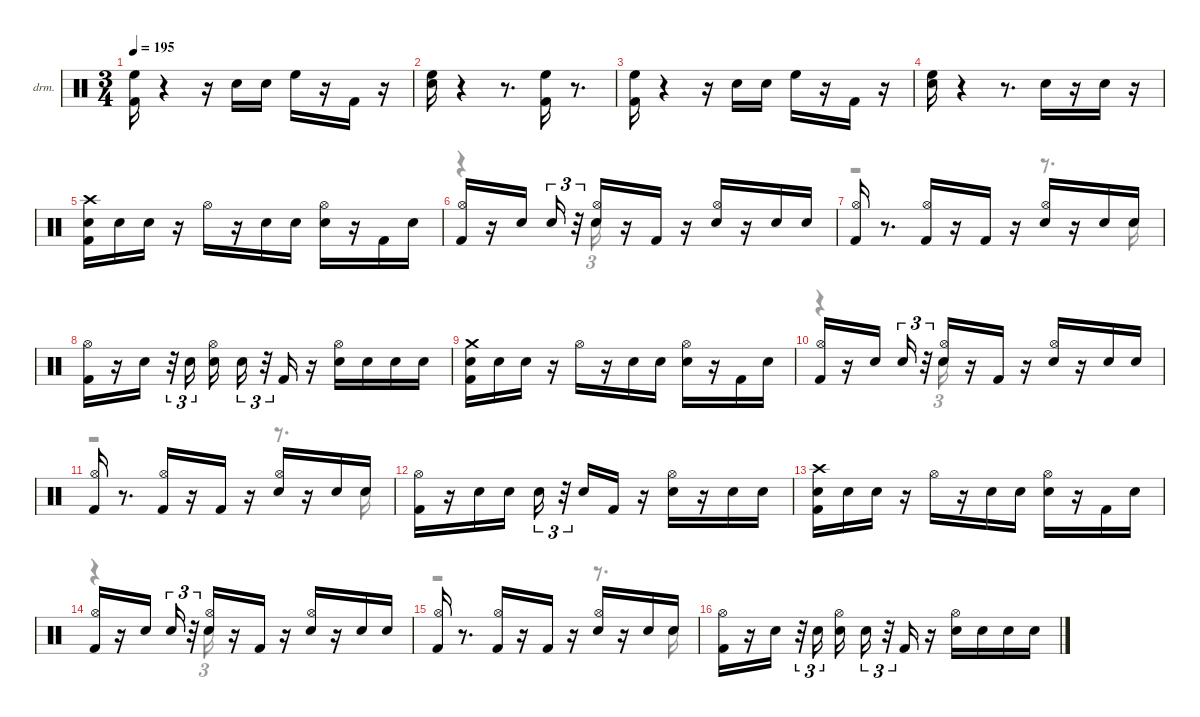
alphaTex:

\hideDynamics
\bracketExtendMode nobrackets
\firstSystemTrackNameOrientation horizontal
\otherSystemsTrackNameOrientation horizontal
\track ("EZdrummer 3" "drm.") {instrument percussion}
\staff {score}
\articulation defaults
\voice
\ts (3 4)
\tempo 195
\clef neutral
\ks aminor
("Kick (hit) 2" "High Floor Tom (hit)").16{dy ff beam Down} r.4{beam Down} r.16{beam Down} "Snare (hit) 2".16{dy mp beam Down} "Snare (hit) 2".16{dy pp beam Down} "High Floor Tom (hit)".16{dy mf beam Down} r.16{beam Down} "Kick (hit) 2".16{dy f beam Up} r.16{beam Up} |
("Snare (hit) 2" "High Floor Tom (hit)").16{beam Down} r.4{beam Down} r.8{d beam Down} ("Kick (hit) 2" "High Floor Tom (hit)").16{dy mf beam Down} r.8{d beam Down} |
("Kick (hit) 2" "High Floor Tom (hit)").16{dy ff beam Down} r.4{beam Down} r.16{beam Down} "Snare (hit) 2".16{dy mp beam Down} "Snare (hit) 2".16{dy pp beam Down} "High Floor Tom (hit)".16{dy mf beam Down} r.16{beam Down} "Kick (hit) 2".16{dy f beam Up} r.16{beam Up} |
("Snare (hit) 2" "High Floor Tom (hit)").16{dy ff beam Down} r.4{beam Down} r.8{d beam Down} "Snare (hit) 2".16{dy f beam Down} r.16{beam Down} "Snare (hit) 2".16{dy ppp beam Down} r.16{beam Down} |
("Kick (hit) 2" "Snare (hit) 2" "Crash high (hit)"{acc #}).16{dy ff beam Down} "Snare (hit) 2".16{dy pp beam Down} "Snare (hit) 2".16{dy ppp beam Down} r.16{beam Down} "Hi-Hat (open)"{acc #}.16{dy mp beam Down} r.16{beam Down} "Snare (hit) 2".16{dy ff beam Down} "Snare (hit) 2".16{dy pp beam Down} ("Snare (hit) 2" "Hi-Hat (open)"{acc #}).16{dy ppp beam Down} r.16{beam Down} "Kick (hit) 2".16{dy p beam Up} "Snare (hit) 2".16{dy ppp beam Up} |
("Kick (hit) 2" "Hi-Hat (open)"{acc #}).16{dy ff beam Up} r.16{beam Up} "Snare (hit) 2".16{beam Up} "Snare (hit) 2".16{tu (3 2) dy pp beam Up} r.32{tu (3 2) beam Up} ("Snare (hit) 2" "Hi-Hat (open)"{acc #}).16{dy mf beam Up} r.16{beam Up} "Kick (hit) 2".16{dy f beam Up} r.16{beam Up} ("Snare (hit) 2" "Hi-Hat (open)"{acc #}).16{dy mf beam Up} r.16{beam Up} "Snare (hit) 2".16{dy f beam Up} "Snare (hit) 2".16{dy ppp beam Up} |
("Kick (hit) 2" "Hi-Hat (open)"{acc #}).16{dy fff beam Up} r.8{d beam Up} ("Kick (hit) 2" "Hi-Hat (open)"{acc #}).16{dy mf beam Up} r.16{beam Up} "Kick (hit) 2".16{dy ff beam Up} r.16{beam Up} ("Snare (hit) 2" "Hi-Hat (open)"{acc #}).16{beam Up} r.16{beam Up} "Snare (hit) 2".16{dy pp beam Up} "Snare (hit) 2".16{dy ppp beam Up} |
("Kick (hit) 2" "Hi-Hat (open)"{acc #}).16{dy ff beam Down} r.16{beam Down} "Snare (hit) 2".16{dy fff beam Down} r.32{tu (3 2) beam Down} "Snare (hit) 2".16{tu (3 2) dy pp beam Down} ("Snare (hit) 2" "Hi-Hat (open)"{acc #}).16{dy mp beam Down} "Snare (hit) 2".16{tu (3 2) dy ppp beam Down} r.32{tu (3 2) beam Down} "Kick (hit) 2".16{dy f beam Up} r.16{beam Up} ("Snare (hit) 2" "Hi-Hat (open)"{acc #}).16{dy mf beam Down} "Snare (hit) 2".16{dy ppp beam Down} "Snare (hit) 2".16{beam Down} "Snare (hit) 2".16{beam Down} |
("Snare (hit) 2" "Crash medium (hit)" "Kick (hit) 2").16{dy ff beam Down} "Snare (hit) 2".16{dy pp beam Down} "Snare (hit) 2".16{dy ppp beam Down} r.16{beam Down} "Hi-Hat (open)"{acc #}.16{dy mp beam Down} r.16{beam Down} "Snare (hit) 2".16{dy ff beam Down} "Snare (hit) 2".16{dy pp beam Down} ("Snare (hit) 2" "Hi-Hat (open)"{acc #}).16{dy ppp beam Down} r.16{beam Down} "Kick (hit) 2".16{dy p beam Up} "Snare (hit) 2".16{dy ppp beam Up} |
("Kick (hit) 2" "Hi-Hat (open)"{acc #}).16{dy ff beam Up} r.16{beam Up} "Snare (hit) 2".16{beam Up} "Snare (hit) 2".16{tu (3 2) dy pp beam Up} r.32{tu (3 2) beam Up} ("Snare (hit) 2" "Hi-Hat (open)"{acc #}).16{dy ppp beam Up} r.16{beam Up} "Kick (hit) 2".16{dy f beam Up} r.16{beam Up} ("Snare (hit) 2" "Hi-Hat (open)"{acc #}).16{dy ff beam Up} r.16{beam Up} "Snare (hit) 2".16{dy f beam Up} "Snare (hit) 2".16{dy ppp beam Up} |
("Kick (hit) 2" "Hi-Hat (open)"{acc #}).16{dy fff beam Up} r.8{d beam Up} ("Kick (hit) 2" "Hi-Hat (open)"{acc #}).16{dy mp beam Up} r.16{beam Up} "Kick (hit) 2".16{dy ff beam Up} r.16{beam Up} ("Snare (hit) 2" "Hi-Hat (open)"{acc #}).16{beam Up} r.16{beam Up} "Snare (hit) 2".16{dy pp beam Up} "Snare (hit) 2".16{dy ppp beam Up} |
("Kick (hit) 2" "Hi-Hat (open)"{acc #}).16{dy fff beam Down} r.16{beam Down} "Snare (hit) 2".16{dy mf beam Down} "Snare (hit) 2".16{dy p beam Down} "Snare (hit) 2".16{tu (3 2) dy fff beam Down} r.32{tu (3 2) beam Down} "Snare (hit) 2".16{dy ppp beam Up} "Kick (hit) 2".16{dy f beam Up} r.16{beam Up} ("Snare (hit) 2" "Hi-Hat (open)"{acc #}).16{dy fff beam Down} r.16{beam Down} "Snare (hit) 2".16{dy pp beam Down} "Snare (hit) 2".16{dy ppp beam Down} |
("Kick (hit) 2" "Snare (hit) 2" "Crash high (hit)"{acc #}).16{dy fff beam Down} "Snare (hit) 2".16{dy pp beam Down} "Snare (hit) 2".16{dy ppp beam Down} r.16{beam Down} "Hi-Hat (open)"{acc #}.16{dy mp beam Down} r.16{beam Down} "Snare (hit) 2".16{dy ff beam Down} "Snare (hit) 2".16{dy pp beam Down} ("Snare (hit) 2" "Hi-Hat (open)"{acc #}).16{dy mf beam Down} r.16{beam Down} "Kick (hit) 2".16{dy p beam Up} "Snare (hit) 2".16{dy ppp beam Up} |
("Kick (hit) 2" "Hi-Hat (open)"{acc #}).16{dy fff beam Up} r.16{beam Up} "Snare (hit) 2".16{dy ff beam Up} "Snare (hit) 2".16{tu (3 2) dy pp beam Up} r.32{tu (3 2) beam Up} ("Snare (hit) 2" "Hi-Hat (open)"{acc #}).16{dy mf beam Up} r.16{beam Up} "Kick (hit) 2".16{dy f beam Up} r.16{beam Up} ("Snare (hit) 2" "Hi-Hat (open)"{acc #}).16{dy ff beam Up} r.16{beam Up} "Snare (hit) 2".16{dy f beam Up} "Snare (hit) 2".16{dy ppp beam Up} |
("Kick (hit) 2" "Hi-Hat (open)"{acc #}).16{dy fff beam Up} r.8{d beam Up} ("Kick (hit) 2" "Hi-Hat (open)"{acc #}).16{dy mp beam Up} r.16{beam Up} "Kick (hit) 2".16{dy ff beam Up} r.16{beam Up} ("Snare (hit) 2" "Hi-Hat (open)"{acc #}).16{beam Up} r.16{beam Up} "Snare (hit) 2".16{dy pp beam Up} "Snare (hit) 2".16{dy ppp beam Up} |
("Kick (hit) 2" "Hi-Hat (open)"{acc #}).16{dy ff beam Down} r.16{beam Down} "Snare (hit) 2".16{dy fff beam Down} r.32{tu (3 2) beam Down} "Snare (hit) 2".16{tu (3 2) dy pp beam Down} ("Snare (hit) 2" "Hi-Hat (open)"{acc #}).16{dy ppp beam Down} "Snare (hit) 2".16{tu (3 2) beam Down} r.32{tu (3 2) beam Down} "Kick (hit) 2".16{dy f beam Up} r.16{beam Up} ("Snare (hit) 2" "Hi-Hat (open)"{acc #}).16{dy fff beam Down} "Snare (hit) 2".16{dy ppp beam Down} "Snare (hit) 2".16{beam Down} "Snare (hit) 2".16{beam Down}
\voice
\clef neutral
\ottava regular
\simile none
\ks aminor
|
|
|
|
|
r.4{beam Down} "Snare (hit) 2".16{tu (3 2) dy ppp beam Down} |
r.2{beam Down} r.8{d beam Down} "Snare (hit) 2".16{beam Down} |
|
|
r.4{beam Down} "Snare (hit) 2".16{tu (3 2) beam Down} |
r.2{beam Down} r.8{d beam Down} "Snare (hit) 2".16{beam Down} |
|
|
r.4{beam Down} "Snare (hit) 2".16{tu (3 2) beam Down} |
r.2{beam Down} r.8{d beam Down} "Snare (hit) 2".16{beam Down} |
